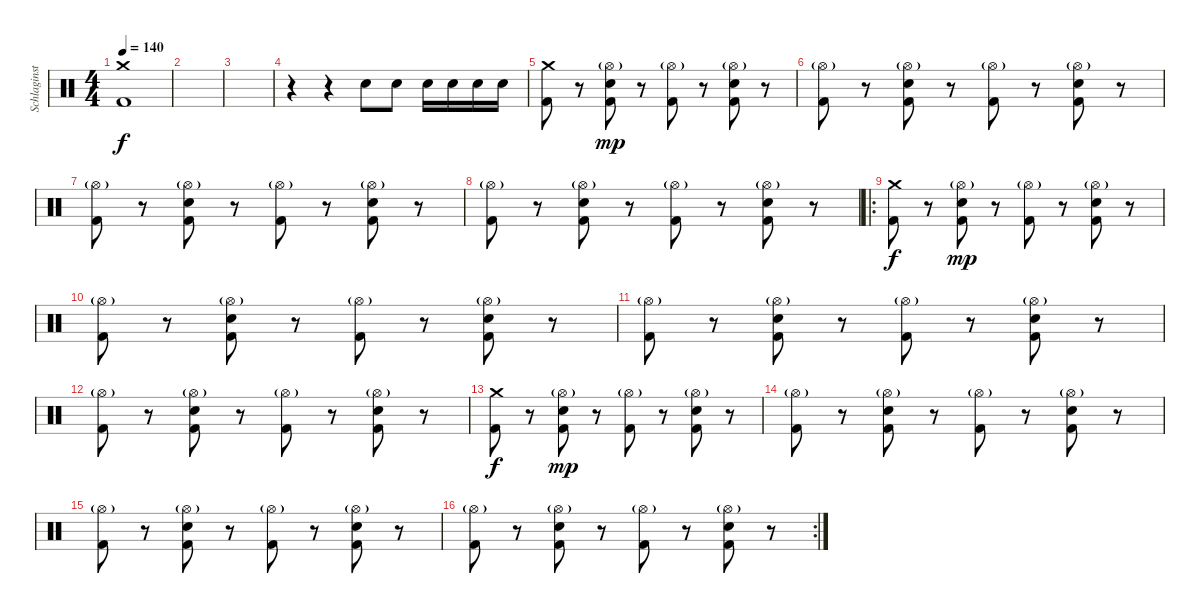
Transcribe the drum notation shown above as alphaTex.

\track ("Schlaginstrumente - Auswahl" "Schlaginst") {instrument percussion}
\staff {score}
\articulation defaults
\ts (4 4)
\tempo 140
\clef neutral
\ks c
("Crash medium (hit)" "Kick (hit) 2").1{dy f} |
|
|
r.4 r.4 "Electric Snare (hit)".8 "Electric Snare (hit)".8 "Electric Snare (hit)".16 "Electric Snare (hit)".16 "Electric Snare (hit)".16 "Electric Snare (hit)".16 |
("Crash medium (hit)" "Kick (hit) 2").8 r.8 ("Hi-Hat (open)"{g} "Electric Snare (hit)" "Kick (hit) 2").8{dy mp} r.8 ("Hi-Hat (open)"{g} "Kick (hit) 2").8 r.8 ("Hi-Hat (open)"{g} "Electric Snare (hit)" "Kick (hit) 2").8 r.8 |
("Hi-Hat (open)"{g} "Kick (hit) 2").8 r.8 ("Hi-Hat (open)"{g} "Electric Snare (hit)" "Kick (hit) 2").8 r.8 ("Hi-Hat (open)"{g} "Kick (hit) 2").8 r.8 ("Hi-Hat (open)"{g} "Electric Snare (hit)" "Kick (hit) 2").8 r.8 |
("Hi-Hat (open)"{g} "Kick (hit) 2").8 r.8 ("Hi-Hat (open)"{g} "Electric Snare (hit)" "Kick (hit) 2").8 r.8 ("Hi-Hat (open)"{g} "Kick (hit) 2").8 r.8 ("Hi-Hat (open)"{g} "Electric Snare (hit)" "Kick (hit) 2").8 r.8 |
("Hi-Hat (open)"{g} "Kick (hit) 2").8 r.8 ("Hi-Hat (open)"{g} "Electric Snare (hit)" "Kick (hit) 2").8 r.8 ("Hi-Hat (open)"{g} "Kick (hit) 2").8 r.8 ("Hi-Hat (open)"{g} "Electric Snare (hit)" "Kick (hit) 2").8 r.8 |
\ro
("Crash medium (hit)" "Kick (hit) 2").8{dy f} r.8 ("Hi-Hat (open)"{g} "Electric Snare (hit)" "Kick (hit) 2").8{dy mp} r.8 ("Hi-Hat (open)"{g} "Kick (hit) 2").8 r.8 ("Hi-Hat (open)"{g} "Electric Snare (hit)" "Kick (hit) 2").8 r.8 |
("Hi-Hat (open)"{g} "Kick (hit) 2").8 r.8 ("Hi-Hat (open)"{g} "Electric Snare (hit)" "Kick (hit) 2").8 r.8 ("Hi-Hat (open)"{g} "Kick (hit) 2").8 r.8 ("Hi-Hat (open)"{g} "Electric Snare (hit)" "Kick (hit) 2").8 r.8 |
("Hi-Hat (open)"{g} "Kick (hit) 2").8 r.8 ("Hi-Hat (open)"{g} "Electric Snare (hit)" "Kick (hit) 2").8 r.8 ("Hi-Hat (open)"{g} "Kick (hit) 2").8 r.8 ("Hi-Hat (open)"{g} "Electric Snare (hit)" "Kick (hit) 2").8 r.8 |
("Hi-Hat (open)"{g} "Kick (hit) 2").8 r.8 ("Hi-Hat (open)"{g} "Electric Snare (hit)" "Kick (hit) 2").8 r.8 ("Hi-Hat (open)"{g} "Kick (hit) 2").8 r.8 ("Hi-Hat (open)"{g} "Electric Snare (hit)" "Kick (hit) 2").8 r.8 |
("Crash medium (hit)" "Kick (hit) 2").8{dy f} r.8 ("Hi-Hat (open)"{g} "Electric Snare (hit)" "Kick (hit) 2").8{dy mp} r.8 ("Hi-Hat (open)"{g} "Kick (hit) 2").8 r.8 ("Hi-Hat (open)"{g} "Electric Snare (hit)" "Kick (hit) 2").8 r.8 |
("Hi-Hat (open)"{g} "Kick (hit) 2").8 r.8 ("Hi-Hat (open)"{g} "Electric Snare (hit)" "Kick (hit) 2").8 r.8 ("Hi-Hat (open)"{g} "Kick (hit) 2").8 r.8 ("Hi-Hat (open)"{g} "Electric Snare (hit)" "Kick (hit) 2").8 r.8 |
("Hi-Hat (open)"{g} "Kick (hit) 2").8 r.8 ("Hi-Hat (open)"{g} "Electric Snare (hit)" "Kick (hit) 2").8 r.8 ("Hi-Hat (open)"{g} "Kick (hit) 2").8 r.8 ("Hi-Hat (open)"{g} "Electric Snare (hit)" "Kick (hit) 2").8 r.8 |
\rc 2
("Hi-Hat (open)"{g} "Kick (hit) 2").8 r.8 ("Hi-Hat (open)"{g} "Electric Snare (hit)" "Kick (hit) 2").8 r.8 ("Hi-Hat (open)"{g} "Kick (hit) 2").8 r.8 ("Hi-Hat (open)"{g} "Electric Snare (hit)" "Kick (hit) 2").8 r.8
